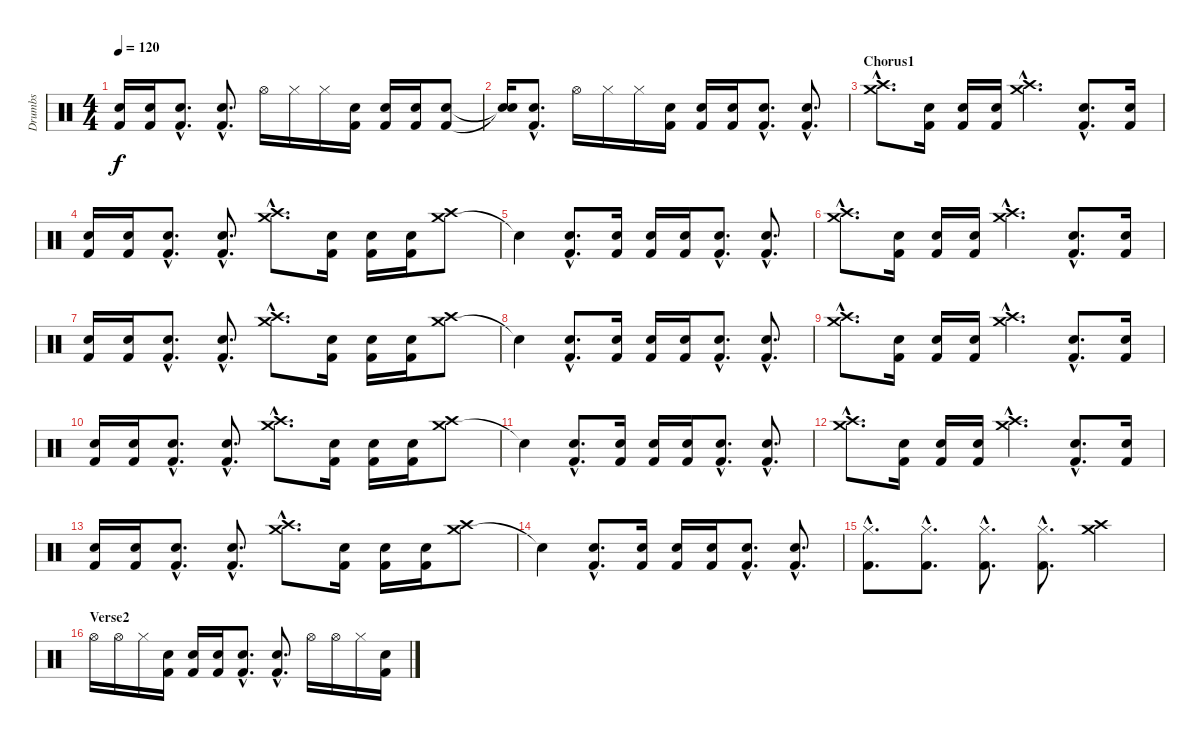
\track ("Drumbs" "Drumbs") {instrument percussion}
\staff {score}
\articulation defaults
\ts (4 4)
\tempo 120
\clef neutral
\ks c
("Electric Snare (hit)" "Kick (hit) 2").16{dy f} ("Electric Snare (hit)" "Kick (hit) 2").16 ("Electric Snare (hit)"{hac} "Kick (hit) 2"{hac}).8{d} ("Electric Snare (hit)"{hac} "Kick (hit) 2"{hac}).8{d} "Hi-Hat (open)".16 "Hi-Hat (closed)".16 "Hi-Hat (closed)".16 ("Electric Snare (hit)" "Kick (hit) 2").16 ("Electric Snare (hit)" "Kick (hit) 2").16 ("Electric Snare (hit)" "Kick (hit) 2").16 ("Electric Snare (hit)" "Kick (hit) 2").8 |
("Snare (hit)"{t} "Snare (hit)"{t}).16 ("Electric Snare (hit)"{hac} "Kick (hit) 2"{hac}).8{d} "Hi-Hat (open)".16 "Hi-Hat (closed)".16 "Hi-Hat (closed)".16 ("Electric Snare (hit)" "Kick (hit) 2").16 ("Electric Snare (hit)" "Kick (hit) 2").16 ("Electric Snare (hit)" "Kick (hit) 2").16 ("Electric Snare (hit)"{hac} "Kick (hit) 2"{hac}).8{d} ("Electric Snare (hit)"{hac} "Kick (hit) 2"{hac}).8{d} |
\section ("" "Chorus1")
("Crash high (hit)"{hac} "Crash medium (hit)"{hac}).8{d} ("Electric Snare (hit)" "Kick (hit) 2").16 ("Electric Snare (hit)" "Kick (hit) 2").16 ("Electric Snare (hit)" "Kick (hit) 2").16 ("Crash high (hit)"{hac} "Crash medium (hit)"{hac}).4{d} ("Electric Snare (hit)"{hac} "Kick (hit) 2"{hac}).8{d} ("Electric Snare (hit)" "Kick (hit) 2").16 |
("Electric Snare (hit)" "Kick (hit) 2").16 ("Electric Snare (hit)" "Kick (hit) 2").16 ("Electric Snare (hit)"{hac} "Kick (hit) 2"{hac}).8{d} ("Electric Snare (hit)"{hac} "Kick (hit) 2"{hac}).8{d} ("Crash medium (hit)"{hac} "Crash high (hit)"{hac}).8{d} ("Electric Snare (hit)" "Kick (hit) 2").16 ("Electric Snare (hit)" "Kick (hit) 2").16 ("Electric Snare (hit)" "Kick (hit) 2").16 ("Crash medium (hit)" "Crash high (hit)").8 |
"Snare (hit)"{t}.4 ("Electric Snare (hit)"{hac} "Kick (hit) 2"{hac}).8{d} ("Electric Snare (hit)" "Kick (hit) 2").16 ("Electric Snare (hit)" "Kick (hit) 2").16 ("Electric Snare (hit)" "Kick (hit) 2").16 ("Electric Snare (hit)"{hac} "Kick (hit) 2"{hac}).8{d} ("Electric Snare (hit)"{hac} "Kick (hit) 2"{hac}).8{d} |
("Crash high (hit)"{hac} "Crash medium (hit)"{hac}).8{d} ("Electric Snare (hit)" "Kick (hit) 2").16 ("Electric Snare (hit)" "Kick (hit) 2").16 ("Electric Snare (hit)" "Kick (hit) 2").16 ("Crash high (hit)"{hac} "Crash medium (hit)"{hac}).4{d} ("Electric Snare (hit)"{hac} "Kick (hit) 2"{hac}).8{d} ("Electric Snare (hit)" "Kick (hit) 2").16 |
("Electric Snare (hit)" "Kick (hit) 2").16 ("Electric Snare (hit)" "Kick (hit) 2").16 ("Electric Snare (hit)"{hac} "Kick (hit) 2"{hac}).8{d} ("Electric Snare (hit)"{hac} "Kick (hit) 2"{hac}).8{d} ("Crash medium (hit)"{hac} "Crash high (hit)"{hac}).8{d} ("Electric Snare (hit)" "Kick (hit) 2").16 ("Electric Snare (hit)" "Kick (hit) 2").16 ("Electric Snare (hit)" "Kick (hit) 2").16 ("Crash medium (hit)" "Crash high (hit)").8 |
"Snare (hit)"{t}.4 ("Electric Snare (hit)"{hac} "Kick (hit) 2"{hac}).8{d} ("Electric Snare (hit)" "Kick (hit) 2").16 ("Electric Snare (hit)" "Kick (hit) 2").16 ("Electric Snare (hit)" "Kick (hit) 2").16 ("Electric Snare (hit)"{hac} "Kick (hit) 2"{hac}).8{d} ("Electric Snare (hit)"{hac} "Kick (hit) 2"{hac}).8{d} |
("Crash high (hit)"{hac} "Crash medium (hit)"{hac}).8{d} ("Electric Snare (hit)" "Kick (hit) 2").16 ("Electric Snare (hit)" "Kick (hit) 2").16 ("Electric Snare (hit)" "Kick (hit) 2").16 ("Crash high (hit)"{hac} "Crash medium (hit)"{hac}).4{d} ("Electric Snare (hit)"{hac} "Kick (hit) 2"{hac}).8{d} ("Electric Snare (hit)" "Kick (hit) 2").16 |
("Electric Snare (hit)" "Kick (hit) 2").16 ("Electric Snare (hit)" "Kick (hit) 2").16 ("Electric Snare (hit)"{hac} "Kick (hit) 2"{hac}).8{d} ("Electric Snare (hit)"{hac} "Kick (hit) 2"{hac}).8{d} ("Crash medium (hit)"{hac} "Crash high (hit)"{hac}).8{d} ("Electric Snare (hit)" "Kick (hit) 2").16 ("Electric Snare (hit)" "Kick (hit) 2").16 ("Electric Snare (hit)" "Kick (hit) 2").16 ("Crash medium (hit)" "Crash high (hit)").8 |
"Snare (hit)"{t}.4 ("Electric Snare (hit)"{hac} "Kick (hit) 2"{hac}).8{d} ("Electric Snare (hit)" "Kick (hit) 2").16 ("Electric Snare (hit)" "Kick (hit) 2").16 ("Electric Snare (hit)" "Kick (hit) 2").16 ("Electric Snare (hit)"{hac} "Kick (hit) 2"{hac}).8{d} ("Electric Snare (hit)"{hac} "Kick (hit) 2"{hac}).8{d} |
("Crash high (hit)"{hac} "Crash medium (hit)"{hac}).8{d} ("Electric Snare (hit)" "Kick (hit) 2").16 ("Electric Snare (hit)" "Kick (hit) 2").16 ("Electric Snare (hit)" "Kick (hit) 2").16 ("Crash high (hit)"{hac} "Crash medium (hit)"{hac}).4{d} ("Electric Snare (hit)"{hac} "Kick (hit) 2"{hac}).8{d} ("Electric Snare (hit)" "Kick (hit) 2").16 |
("Electric Snare (hit)" "Kick (hit) 2").16 ("Electric Snare (hit)" "Kick (hit) 2").16 ("Electric Snare (hit)"{hac} "Kick (hit) 2"{hac}).8{d} ("Electric Snare (hit)"{hac} "Kick (hit) 2"{hac}).8{d} ("Crash medium (hit)"{hac} "Crash high (hit)"{hac}).8{d} ("Electric Snare (hit)" "Kick (hit) 2").16 ("Electric Snare (hit)" "Kick (hit) 2").16 ("Electric Snare (hit)" "Kick (hit) 2").16 ("Crash medium (hit)" "Crash high (hit)").8 |
"Snare (hit)"{t}.4 ("Electric Snare (hit)"{hac} "Kick (hit) 2"{hac}).8{d} ("Electric Snare (hit)" "Kick (hit) 2").16 ("Electric Snare (hit)" "Kick (hit) 2").16 ("Electric Snare (hit)" "Kick (hit) 2").16 ("Electric Snare (hit)"{hac} "Kick (hit) 2"{hac}).8{d} ("Electric Snare (hit)"{hac} "Kick (hit) 2"{hac}).8{d} |
("Hi-Hat (closed)"{hac} "Kick (hit) 2"{hac}).8{d} ("Hi-Hat (closed)"{hac} "Kick (hit) 2"{hac}).8{d} ("Hi-Hat (closed)"{hac} "Kick (hit) 2"{hac}).8{d} ("Hi-Hat (closed)"{hac} "Kick (hit) 2"{hac}).8{d} ("Crash high (hit)" "Crash medium (hit)").4 |
\section ("" "Verse2")
"Hi-Hat (open)".16 "Hi-Hat (open)".16 "Hi-Hat (closed)".16 ("Electric Snare (hit)" "Kick (hit) 2").16 ("Electric Snare (hit)" "Kick (hit) 2").16 ("Electric Snare (hit)" "Kick (hit) 2").16 ("Electric Snare (hit)"{hac} "Kick (hit) 2"{hac}).8{d} ("Electric Snare (hit)"{hac} "Kick (hit) 2"{hac}).8{d} "Hi-Hat (open)".16 "Hi-Hat (open)".16 "Hi-Hat (closed)".16 ("Electric Snare (hit)" "Kick (hit) 2").16
